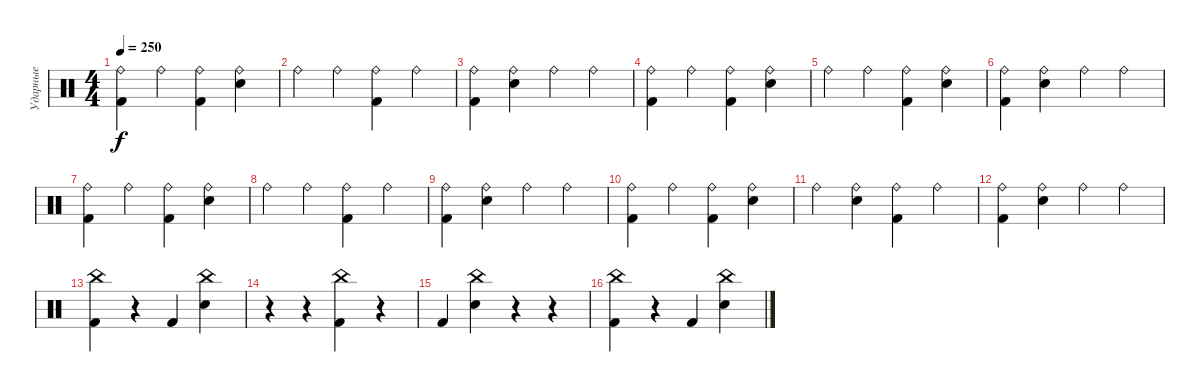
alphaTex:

\track ("Ударные" "Ударные") {instrument percussion}
\staff {score}
\articulation defaults
\ts (4 4)
\tempo 250
\clef neutral
\ks c
("Ride (bell)" "Kick (hit) 2").4{dy f} "Ride (bell)".4 ("Ride (bell)" "Kick (hit) 2").4 ("Snare (hit) 2" "Ride (bell)").4 |
"Ride (bell)".4 "Ride (bell)".4 ("Ride (bell)" "Kick (hit) 2").4 "Ride (bell)".4 |
("Ride (bell)" "Kick (hit) 2").4 ("Snare (hit) 2" "Ride (bell)").4 "Ride (bell)".4 "Ride (bell)".4 |
("Ride (bell)" "Kick (hit) 2").4 "Ride (bell)".4 ("Ride (bell)" "Kick (hit) 2").4 ("Snare (hit) 2" "Ride (bell)").4 |
"Ride (bell)".4 "Ride (bell)".4 ("Ride (bell)" "Kick (hit) 2").4 ("Snare (hit) 2" "Ride (bell)").4 |
("Ride (bell)" "Kick (hit) 2").4 ("Snare (hit) 2" "Ride (bell)").4 "Ride (bell)".4 "Ride (bell)".4 |
("Ride (bell)" "Kick (hit) 2").4 "Ride (bell)".4 ("Ride (bell)" "Kick (hit) 2").4 ("Snare (hit) 2" "Ride (bell)").4 |
"Ride (bell)".4 "Ride (bell)".4 ("Ride (bell)" "Kick (hit) 2").4 "Ride (bell)".4 |
("Ride (bell)" "Kick (hit) 2").4 ("Snare (hit) 2" "Ride (bell)").4 "Ride (bell)".4 "Ride (bell)".4 |
("Ride (bell)" "Kick (hit) 2").4 "Ride (bell)".4 ("Ride (bell)" "Kick (hit) 2").4 ("Snare (hit) 2" "Ride (bell)").4 |
"Ride (bell)".4 ("Snare (hit) 2" "Ride (bell)").4 ("Ride (bell)" "Kick (hit) 2").4 "Ride (bell)".4 |
("Ride (bell)" "Kick (hit) 2").4 ("Snare (hit) 2" "Ride (bell)").4 "Ride (bell)".4 "Ride (bell)".4 |
("China (hit)" "Kick (hit) 2").4 r.4 "Kick (hit) 2".4 ("Snare (hit) 2" "China (hit)").4 |
r.4 r.4 ("China (hit)" "Kick (hit) 2").4 r.4 |
"Kick (hit) 2".4 ("Snare (hit) 2" "China (hit)").4 r.4 r.4 |
("China (hit)" "Kick (hit) 2").4 r.4 "Kick (hit) 2".4 ("Snare (hit) 2" "China (hit)").4
